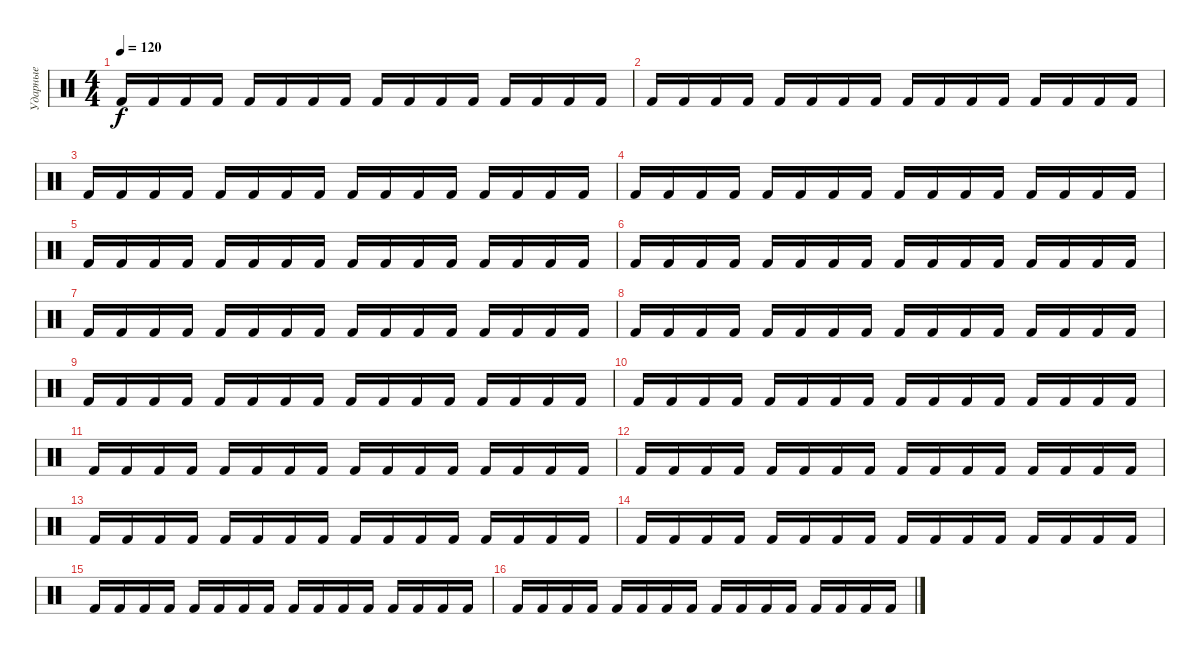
\track ("Ударные" "Ударные") {instrument percussion}
\staff {score}
\articulation defaults
\ts (4 4)
\tempo 120
\clef neutral
\ks c "Kick (hit) 2".16{dy f} "Kick (hit) 2".16 "Kick (hit) 2".16 "Kick (hit) 2".16 "Kick (hit) 2".16 "Kick (hit) 2".16 "Kick (hit) 2".16 "Kick (hit) 2".16 "Kick (hit) 2".16 "Kick (hit) 2".16 "Kick (hit) 2".16 "Kick (hit) 2".16 "Kick (hit) 2".16 "Kick (hit) 2".16 "Kick (hit) 2".16 "Kick (hit) 2".16
|
"Kick (hit) 2".16 "Kick (hit) 2".16 "Kick (hit) 2".16 "Kick (hit) 2".16 "Kick (hit) 2".16 "Kick (hit) 2".16 "Kick (hit) 2".16 "Kick (hit) 2".16 "Kick (hit) 2".16 "Kick (hit) 2".16 "Kick (hit) 2".16 "Kick (hit) 2".16 "Kick (hit) 2".16 "Kick (hit) 2".16 "Kick (hit) 2".16 "Kick (hit) 2".16 |
"Kick (hit) 2".16 "Kick (hit) 2".16 "Kick (hit) 2".16 "Kick (hit) 2".16 "Kick (hit) 2".16 "Kick (hit) 2".16 "Kick (hit) 2".16 "Kick (hit) 2".16 "Kick (hit) 2".16 "Kick (hit) 2".16 "Kick (hit) 2".16 "Kick (hit) 2".16 "Kick (hit) 2".16 "Kick (hit) 2".16 "Kick (hit) 2".16 "Kick (hit) 2".16 |
"Kick (hit) 2".16 "Kick (hit) 2".16 "Kick (hit) 2".16 "Kick (hit) 2".16 "Kick (hit) 2".16 "Kick (hit) 2".16 "Kick (hit) 2".16 "Kick (hit) 2".16 "Kick (hit) 2".16 "Kick (hit) 2".16 "Kick (hit) 2".16 "Kick (hit) 2".16 "Kick (hit) 2".16 "Kick (hit) 2".16 "Kick (hit) 2".16 "Kick (hit) 2".16 |
"Kick (hit) 2".16 "Kick (hit) 2".16 "Kick (hit) 2".16 "Kick (hit) 2".16 "Kick (hit) 2".16 "Kick (hit) 2".16 "Kick (hit) 2".16 "Kick (hit) 2".16 "Kick (hit) 2".16 "Kick (hit) 2".16 "Kick (hit) 2".16 "Kick (hit) 2".16 "Kick (hit) 2".16 "Kick (hit) 2".16 "Kick (hit) 2".16 "Kick (hit) 2".16 |
"Kick (hit) 2".16 "Kick (hit) 2".16 "Kick (hit) 2".16 "Kick (hit) 2".16 "Kick (hit) 2".16 "Kick (hit) 2".16 "Kick (hit) 2".16 "Kick (hit) 2".16 "Kick (hit) 2".16 "Kick (hit) 2".16 "Kick (hit) 2".16 "Kick (hit) 2".16 "Kick (hit) 2".16 "Kick (hit) 2".16 "Kick (hit) 2".16 "Kick (hit) 2".16 |
"Kick (hit) 2".16 "Kick (hit) 2".16 "Kick (hit) 2".16 "Kick (hit) 2".16 "Kick (hit) 2".16 "Kick (hit) 2".16 "Kick (hit) 2".16 "Kick (hit) 2".16 "Kick (hit) 2".16 "Kick (hit) 2".16 "Kick (hit) 2".16 "Kick (hit) 2".16 "Kick (hit) 2".16 "Kick (hit) 2".16 "Kick (hit) 2".16 "Kick (hit) 2".16 |
"Kick (hit) 2".16 "Kick (hit) 2".16 "Kick (hit) 2".16 "Kick (hit) 2".16 "Kick (hit) 2".16 "Kick (hit) 2".16 "Kick (hit) 2".16 "Kick (hit) 2".16 "Kick (hit) 2".16 "Kick (hit) 2".16 "Kick (hit) 2".16 "Kick (hit) 2".16 "Kick (hit) 2".16 "Kick (hit) 2".16 "Kick (hit) 2".16 "Kick (hit) 2".16 |
"Kick (hit) 2".16 "Kick (hit) 2".16 "Kick (hit) 2".16 "Kick (hit) 2".16 "Kick (hit) 2".16 "Kick (hit) 2".16 "Kick (hit) 2".16 "Kick (hit) 2".16 "Kick (hit) 2".16 "Kick (hit) 2".16 "Kick (hit) 2".16 "Kick (hit) 2".16 "Kick (hit) 2".16 "Kick (hit) 2".16 "Kick (hit) 2".16 "Kick (hit) 2".16 |
"Kick (hit) 2".16 "Kick (hit) 2".16 "Kick (hit) 2".16 "Kick (hit) 2".16 "Kick (hit) 2".16 "Kick (hit) 2".16 "Kick (hit) 2".16 "Kick (hit) 2".16 "Kick (hit) 2".16 "Kick (hit) 2".16 "Kick (hit) 2".16 "Kick (hit) 2".16 "Kick (hit) 2".16 "Kick (hit) 2".16 "Kick (hit) 2".16 "Kick (hit) 2".16 |
"Kick (hit) 2".16 "Kick (hit) 2".16 "Kick (hit) 2".16 "Kick (hit) 2".16 "Kick (hit) 2".16 "Kick (hit) 2".16 "Kick (hit) 2".16 "Kick (hit) 2".16 "Kick (hit) 2".16 "Kick (hit) 2".16 "Kick (hit) 2".16 "Kick (hit) 2".16 "Kick (hit) 2".16 "Kick (hit) 2".16 "Kick (hit) 2".16 "Kick (hit) 2".16 |
"Kick (hit) 2".16 "Kick (hit) 2".16 "Kick (hit) 2".16 "Kick (hit) 2".16 "Kick (hit) 2".16 "Kick (hit) 2".16 "Kick (hit) 2".16 "Kick (hit) 2".16 "Kick (hit) 2".16 "Kick (hit) 2".16 "Kick (hit) 2".16 "Kick (hit) 2".16 "Kick (hit) 2".16 "Kick (hit) 2".16 "Kick (hit) 2".16 "Kick (hit) 2".16 |
"Kick (hit) 2".16 "Kick (hit) 2".16 "Kick (hit) 2".16 "Kick (hit) 2".16 "Kick (hit) 2".16 "Kick (hit) 2".16 "Kick (hit) 2".16 "Kick (hit) 2".16 "Kick (hit) 2".16 "Kick (hit) 2".16 "Kick (hit) 2".16 "Kick (hit) 2".16 "Kick (hit) 2".16 "Kick (hit) 2".16 "Kick (hit) 2".16 "Kick (hit) 2".16 |
"Kick (hit) 2".16 "Kick (hit) 2".16 "Kick (hit) 2".16 "Kick (hit) 2".16 "Kick (hit) 2".16 "Kick (hit) 2".16 "Kick (hit) 2".16 "Kick (hit) 2".16 "Kick (hit) 2".16 "Kick (hit) 2".16 "Kick (hit) 2".16 "Kick (hit) 2".16 "Kick (hit) 2".16 "Kick (hit) 2".16 "Kick (hit) 2".16 "Kick (hit) 2".16 |
"Kick (hit) 2".16 "Kick (hit) 2".16 "Kick (hit) 2".16 "Kick (hit) 2".16 "Kick (hit) 2".16 "Kick (hit) 2".16 "Kick (hit) 2".16 "Kick (hit) 2".16 "Kick (hit) 2".16 "Kick (hit) 2".16 "Kick (hit) 2".16 "Kick (hit) 2".16 "Kick (hit) 2".16 "Kick (hit) 2".16 "Kick (hit) 2".16 "Kick (hit) 2".16 |
"Kick (hit) 2".16 "Kick (hit) 2".16 "Kick (hit) 2".16 "Kick (hit) 2".16 "Kick (hit) 2".16 "Kick (hit) 2".16 "Kick (hit) 2".16 "Kick (hit) 2".16 "Kick (hit) 2".16 "Kick (hit) 2".16 "Kick (hit) 2".16 "Kick (hit) 2".16 "Kick (hit) 2".16 "Kick (hit) 2".16 "Kick (hit) 2".16 "Kick (hit) 2".16
